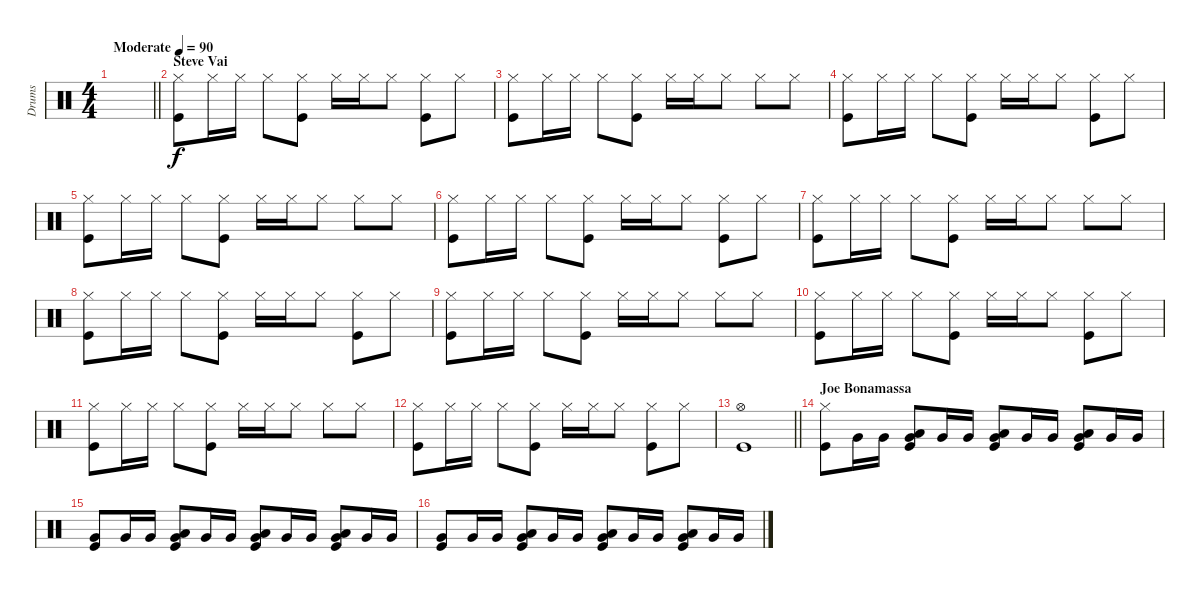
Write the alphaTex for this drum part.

\track ("Drums" "Drums") {instrument percussion}
\staff {score}
\articulation defaults
\ts (4 4)
\tempo (90 "Moderate")
\clef neutral
\barLineRight lightlight
\ks c
|
\section ("" "Steve Vai")
("Hi-Hat (closed)" "Kick (hit)").8 "Hi-Hat (closed)".16 "Hi-Hat (closed)".16 "Hi-Hat (closed)".8 ("Hi-Hat (closed)" "Kick (hit)").8 "Hi-Hat (closed)".16 "Hi-Hat (closed)".16 "Hi-Hat (closed)".8 ("Hi-Hat (closed)" "Kick (hit)").8 "Hi-Hat (closed)".8 |
("Hi-Hat (closed)" "Kick (hit)").8 "Hi-Hat (closed)".16 "Hi-Hat (closed)".16 "Hi-Hat (closed)".8 ("Hi-Hat (closed)" "Kick (hit)").8 "Hi-Hat (closed)".16 "Hi-Hat (closed)".16 "Hi-Hat (closed)".8 "Hi-Hat (closed)".8 "Hi-Hat (closed)".8 |
("Hi-Hat (closed)" "Kick (hit)").8 "Hi-Hat (closed)".16 "Hi-Hat (closed)".16 "Hi-Hat (closed)".8 ("Hi-Hat (closed)" "Kick (hit)").8 "Hi-Hat (closed)".16 "Hi-Hat (closed)".16 "Hi-Hat (closed)".8 ("Hi-Hat (closed)" "Kick (hit)").8 "Hi-Hat (closed)".8 |
("Hi-Hat (closed)" "Kick (hit)").8 "Hi-Hat (closed)".16 "Hi-Hat (closed)".16 "Hi-Hat (closed)".8 ("Hi-Hat (closed)" "Kick (hit)").8 "Hi-Hat (closed)".16 "Hi-Hat (closed)".16 "Hi-Hat (closed)".8 "Hi-Hat (closed)".8 "Hi-Hat (closed)".8 |
("Hi-Hat (closed)" "Kick (hit)").8 "Hi-Hat (closed)".16 "Hi-Hat (closed)".16 "Hi-Hat (closed)".8 ("Hi-Hat (closed)" "Kick (hit)").8 "Hi-Hat (closed)".16 "Hi-Hat (closed)".16 "Hi-Hat (closed)".8 ("Hi-Hat (closed)" "Kick (hit)").8 "Hi-Hat (closed)".8 |
("Hi-Hat (closed)" "Kick (hit)").8 "Hi-Hat (closed)".16 "Hi-Hat (closed)".16 "Hi-Hat (closed)".8 ("Hi-Hat (closed)" "Kick (hit)").8 "Hi-Hat (closed)".16 "Hi-Hat (closed)".16 "Hi-Hat (closed)".8 "Hi-Hat (closed)".8 "Hi-Hat (closed)".8 |
("Hi-Hat (closed)" "Kick (hit)").8 "Hi-Hat (closed)".16 "Hi-Hat (closed)".16 "Hi-Hat (closed)".8 ("Hi-Hat (closed)" "Kick (hit)").8 "Hi-Hat (closed)".16 "Hi-Hat (closed)".16 "Hi-Hat (closed)".8 ("Hi-Hat (closed)" "Kick (hit)").8 "Hi-Hat (closed)".8 |
("Hi-Hat (closed)" "Kick (hit)").8 "Hi-Hat (closed)".16 "Hi-Hat (closed)".16 "Hi-Hat (closed)".8 ("Hi-Hat (closed)" "Kick (hit)").8 "Hi-Hat (closed)".16 "Hi-Hat (closed)".16 "Hi-Hat (closed)".8 "Hi-Hat (closed)".8 "Hi-Hat (closed)".8 |
("Hi-Hat (closed)" "Kick (hit)").8 "Hi-Hat (closed)".16 "Hi-Hat (closed)".16 "Hi-Hat (closed)".8 ("Hi-Hat (closed)" "Kick (hit)").8 "Hi-Hat (closed)".16 "Hi-Hat (closed)".16 "Hi-Hat (closed)".8 ("Hi-Hat (closed)" "Kick (hit)").8 "Hi-Hat (closed)".8 |
("Hi-Hat (closed)" "Kick (hit)").8 "Hi-Hat (closed)".16 "Hi-Hat (closed)".16 "Hi-Hat (closed)".8 ("Hi-Hat (closed)" "Kick (hit)").8 "Hi-Hat (closed)".16 "Hi-Hat (closed)".16 "Hi-Hat (closed)".8 "Hi-Hat (closed)".8 "Hi-Hat (closed)".8 |
("Hi-Hat (closed)" "Kick (hit)").8 "Hi-Hat (closed)".16 "Hi-Hat (closed)".16 "Hi-Hat (closed)".8 ("Hi-Hat (closed)" "Kick (hit)").8 "Hi-Hat (closed)".16 "Hi-Hat (closed)".16 "Hi-Hat (closed)".8 ("Hi-Hat (closed)" "Kick (hit)").8 "Hi-Hat (closed)".8 |
\barLineRight lightlight
("Hi-Hat (open)" "Kick (hit)").1 |
\section ("" "Joe Bonamassa")
("Hi-Hat (closed)" "Kick (hit)").8 "Very Low Tom (hit)".16 "Very Low Tom (hit)".16 ("Low Tom (hit)" "Very Low Tom (hit)" "Kick (hit)").8 "Very Low Tom (hit)".16 "Very Low Tom (hit)".16 ("Low Tom (hit)" "Very Low Tom (hit)" "Kick (hit)").8 "Very Low Tom (hit)".16 "Very Low Tom (hit)".16 ("Low Tom (hit)" "Very Low Tom (hit)" "Kick (hit)").8 "Very Low Tom (hit)".16 "Very Low Tom (hit)".16 |
("Very Low Tom (hit)" "Kick (hit)").8 "Very Low Tom (hit)".16 "Very Low Tom (hit)".16 ("Low Tom (hit)" "Very Low Tom (hit)" "Kick (hit)").8 "Very Low Tom (hit)".16 "Very Low Tom (hit)".16 ("Low Tom (hit)" "Very Low Tom (hit)" "Kick (hit)").8 "Very Low Tom (hit)".16 "Very Low Tom (hit)".16 ("Low Tom (hit)" "Very Low Tom (hit)" "Kick (hit)").8 "Very Low Tom (hit)".16 "Very Low Tom (hit)".16 |
("Very Low Tom (hit)" "Kick (hit)").8 "Very Low Tom (hit)".16 "Very Low Tom (hit)".16 ("Low Tom (hit)" "Very Low Tom (hit)" "Kick (hit)").8 "Very Low Tom (hit)".16 "Very Low Tom (hit)".16 ("Low Tom (hit)" "Very Low Tom (hit)" "Kick (hit)").8 "Very Low Tom (hit)".16 "Very Low Tom (hit)".16 ("Low Tom (hit)" "Very Low Tom (hit)" "Kick (hit)").8 "Very Low Tom (hit)".16 "Very Low Tom (hit)".16
